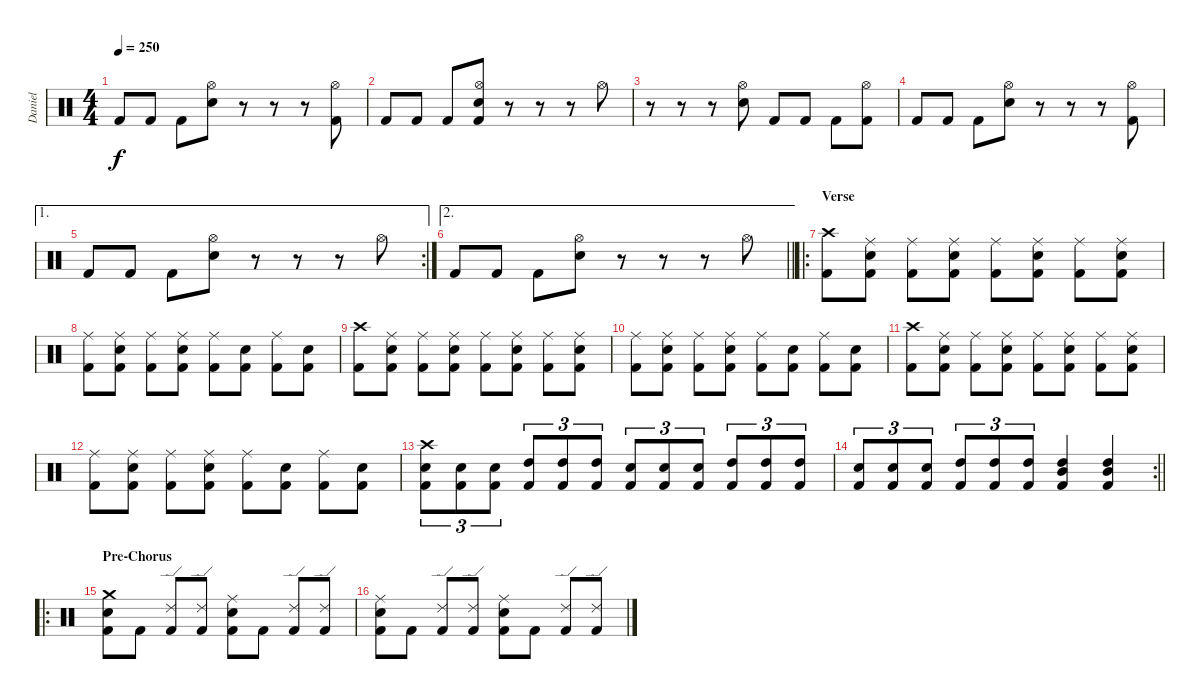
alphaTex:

\track ("Daniel" "Daniel") {instrument percussion}
\staff {score}
\articulation defaults
\ts (4 4)
\tempo 250
\clef neutral
\ks c "Kick (hit) 2".8{dy f} "Kick (hit) 2".8 "Kick (hit) 2".8
("Hi-Hat (open)" "Snare (hit) 2").8 r.8 r.8 r.8 ("Hi-Hat (open)" "Kick (hit) 2").8 |
"Kick (hit) 2".8 "Kick (hit) 2".8 "Kick (hit) 2".8 ("Hi-Hat (open)" "Snare (hit) 2" "Kick (hit) 2").8 r.8 r.8 r.8 "Hi-Hat (open)".8 |
r.8 r.8 r.8 ("Hi-Hat (open)" "Snare (hit) 2").8 "Kick (hit) 2".8 "Kick (hit) 2".8 "Kick (hit) 2".8 ("Hi-Hat (open)" "Kick (hit) 2").8 |
"Kick (hit) 2".8 "Kick (hit) 2".8 "Kick (hit) 2".8 ("Hi-Hat (open)" "Snare (hit) 2").8 r.8 r.8 r.8 ("Hi-Hat (open)" "Kick (hit) 2").8 |
\ae 1
\rc 2 "Kick (hit) 2".8 "Kick (hit) 2".8 "Kick (hit) 2".8
("Hi-Hat (open)" "Snare (hit) 2").8 r.8 r.8 r.8 "Hi-Hat (open)".8 |
\ae 2
\barLineRight lightlight "Kick (hit) 2".8 "Kick (hit) 2".8 "Kick (hit) 2".8
("Hi-Hat (open)" "Snare (hit) 2").8 r.8 r.8 r.8 "Hi-Hat (open)".8 |
\ro
\section ("" "Verse")
("Crash high (hit)" "Kick (hit) 2").8 ("Ride (middle)" "Snare (hit) 2" "Kick (hit) 2").8 ("Ride (middle)" "Kick (hit) 2").8 ("Ride (middle)" "Snare (hit) 2" "Kick (hit) 2").8 ("Ride (middle)" "Kick (hit) 2").8 ("Ride (middle)" "Snare (hit) 2" "Kick (hit) 2").8 ("Ride (middle)" "Kick (hit) 2").8 ("Ride (middle)" "Snare (hit) 2" "Kick (hit) 2").8 |
("Ride (middle)" "Kick (hit) 2").8 ("Ride (middle)" "Snare (hit) 2" "Kick (hit) 2").8 ("Ride (middle)" "Kick (hit) 2").8 ("Ride (middle)" "Snare (hit) 2" "Kick (hit) 2").8 ("Ride (middle)" "Kick (hit) 2").8 ("Snare (hit) 2" "Kick (hit) 2").8 ("Ride (middle)" "Kick (hit) 2").8 ("Snare (hit) 2" "Kick (hit) 2").8 |
("Crash high (hit)" "Kick (hit) 2").8 ("Ride (middle)" "Snare (hit) 2" "Kick (hit) 2").8 ("Ride (middle)" "Kick (hit) 2").8 ("Ride (middle)" "Snare (hit) 2" "Kick (hit) 2").8 ("Ride (middle)" "Kick (hit) 2").8 ("Ride (middle)" "Snare (hit) 2" "Kick (hit) 2").8 ("Ride (middle)" "Kick (hit) 2").8 ("Ride (middle)" "Snare (hit) 2" "Kick (hit) 2").8 |
("Ride (middle)" "Kick (hit) 2").8 ("Ride (middle)" "Snare (hit) 2" "Kick (hit) 2").8 ("Ride (middle)" "Kick (hit) 2").8 ("Ride (middle)" "Snare (hit) 2" "Kick (hit) 2").8 ("Ride (middle)" "Kick (hit) 2").8 ("Snare (hit) 2" "Kick (hit) 2").8 ("Ride (middle)" "Kick (hit) 2").8 ("Snare (hit) 2" "Kick (hit) 2").8 |
("Crash high (hit)" "Kick (hit) 2").8 ("Ride (middle)" "Snare (hit) 2" "Kick (hit) 2").8 ("Ride (middle)" "Kick (hit) 2").8 ("Ride (middle)" "Snare (hit) 2" "Kick (hit) 2").8 ("Ride (middle)" "Kick (hit) 2").8 ("Ride (middle)" "Snare (hit) 2" "Kick (hit) 2").8 ("Ride (middle)" "Kick (hit) 2").8 ("Ride (middle)" "Snare (hit) 2" "Kick (hit) 2").8 |
("Ride (middle)" "Kick (hit) 2").8 ("Ride (middle)" "Snare (hit) 2" "Kick (hit) 2").8 ("Ride (middle)" "Kick (hit) 2").8 ("Ride (middle)" "Snare (hit) 2" "Kick (hit) 2").8 ("Ride (middle)" "Kick (hit) 2").8 ("Snare (hit) 2" "Kick (hit) 2").8 ("Ride (middle)" "Kick (hit) 2").8 ("Snare (hit) 2" "Kick (hit) 2").8 |
("Crash high (hit)" "Snare (hit) 2" "Kick (hit) 2").8{tu (3 2)} ("Snare (hit) 2" "Kick (hit) 2").8{tu (3 2)} ("Snare (hit) 2" "Kick (hit) 2").8{tu (3 2)} ("High Tom (hit)" "Kick (hit) 2").8{tu (3 2)} ("High Tom (hit)" "Kick (hit) 2").8{tu (3 2)} ("High Tom (hit)" "Kick (hit) 2").8{tu (3 2)} ("Snare (hit) 2" "Kick (hit) 2").8{tu (3 2)} ("Snare (hit) 2" "Kick (hit) 2").8{tu (3 2)} ("Snare (hit) 2" "Kick (hit) 2").8{tu (3 2)} ("High Tom (hit)" "Kick (hit) 2").8{tu (3 2)} ("High Tom (hit)" "Kick (hit) 2").8{tu (3 2)} ("High Tom (hit)" "Kick (hit) 2").8{tu (3 2)} |
\rc 2
\barLineRight lightlight
("Snare (hit) 2" "Kick (hit) 2").8{tu (3 2)} ("Snare (hit) 2" "Kick (hit) 2").8{tu (3 2)} ("Snare (hit) 2" "Kick (hit) 2").8{tu (3 2)} ("High Tom (hit)" "Kick (hit) 2").8{tu (3 2)} ("High Tom (hit)" "Kick (hit) 2").8{tu (3 2)} ("High Tom (hit)" "Kick (hit) 2").8{tu (3 2)} ("High Tom (hit)" "Mid Tom (hit)" "Kick (hit) 2").4 ("High Tom (hit)" "Mid Tom (hit)" "Kick (hit) 2").4 |
\ro
\section ("" "Pre-Chorus")
("Crash medium (hit)" "Snare (hit) 2" "Kick (hit) 2").8 "Kick (hit) 2".8 ("Ride (edge) 2" "Kick (hit) 2").8 ("Ride (edge) 2" "Kick (hit) 2").8 ("Ride (middle)" "Snare (hit) 2" "Kick (hit) 2").8 "Kick (hit) 2".8 ("Ride (edge) 2" "Kick (hit) 2").8 ("Ride (edge) 2" "Kick (hit) 2").8 |
("Ride (middle)" "Snare (hit) 2" "Kick (hit) 2").8 "Kick (hit) 2".8 ("Ride (edge) 2" "Kick (hit) 2").8 ("Ride (edge) 2" "Kick (hit) 2").8 ("Ride (middle)" "Snare (hit) 2" "Kick (hit) 2").8 "Kick (hit) 2".8 ("Ride (edge) 2" "Kick (hit) 2").8 ("Ride (edge) 2" "Kick (hit) 2").8
